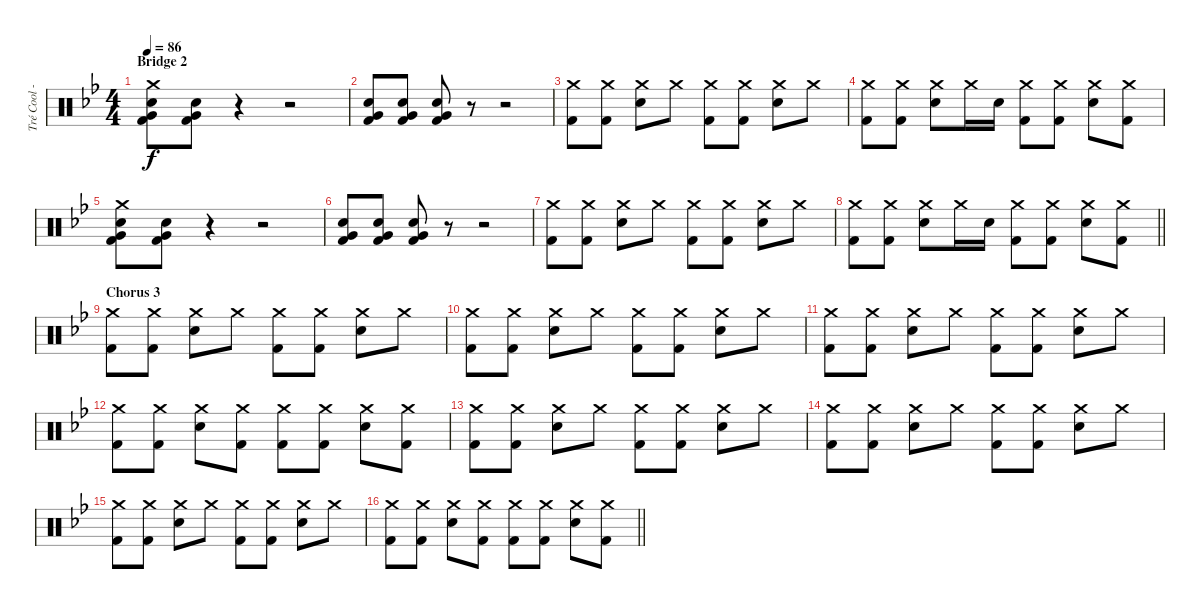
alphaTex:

\track ("Tré Cool - Drums" "Tré Cool -") {instrument percussion}
\staff {score}
\articulation defaults
\ts (4 4)
\section ("" "Bridge 2")
\tempo 86
\clef neutral
\ks gminor
("Crash medium (hit)" "Very Low Tom (hit)" "Electric Snare (hit)" "Kick (hit) 2").8{dy f} ("Very Low Tom (hit)" "Electric Snare (hit)" "Kick (hit) 2").8 r.4 r.2 |
("Very Low Tom (hit)" "Electric Snare (hit)" "Kick (hit) 2").8 ("Very Low Tom (hit)" "Electric Snare (hit)" "Kick (hit) 2").8 ("Very Low Tom (hit)" "Electric Snare (hit)" "Kick (hit) 2").8 r.8 r.2 |
("Crash medium (hit)" "Kick (hit) 2").8 ("Crash medium (hit)" "Kick (hit) 2").8 ("Crash medium (hit)" "Electric Snare (hit)").8 "Crash medium (hit)".8 ("Crash medium (hit)" "Kick (hit) 2").8 ("Crash medium (hit)" "Kick (hit) 2").8 ("Crash medium (hit)" "Electric Snare (hit)").8 "Crash medium (hit)".8 |
("Crash medium (hit)" "Kick (hit) 2").8 ("Crash medium (hit)" "Kick (hit) 2").8 ("Crash medium (hit)" "Electric Snare (hit)").8 "Crash medium (hit)".16 "Electric Snare (hit)".16 ("Crash medium (hit)" "Kick (hit) 2").8 ("Crash medium (hit)" "Kick (hit) 2").8 ("Crash medium (hit)" "Electric Snare (hit)").8 ("Crash medium (hit)" "Kick (hit) 2").8 |
("Crash medium (hit)" "Very Low Tom (hit)" "Electric Snare (hit)" "Kick (hit) 2").8 ("Very Low Tom (hit)" "Electric Snare (hit)" "Kick (hit) 2").8 r.4 r.2 |
("Very Low Tom (hit)" "Electric Snare (hit)" "Kick (hit) 2").8 ("Very Low Tom (hit)" "Electric Snare (hit)" "Kick (hit) 2").8 ("Very Low Tom (hit)" "Electric Snare (hit)" "Kick (hit) 2").8 r.8 r.2 |
("Crash medium (hit)" "Kick (hit) 2").8 ("Crash medium (hit)" "Kick (hit) 2").8 ("Crash medium (hit)" "Electric Snare (hit)").8 "Crash medium (hit)".8 ("Crash medium (hit)" "Kick (hit) 2").8 ("Crash medium (hit)" "Kick (hit) 2").8 ("Crash medium (hit)" "Electric Snare (hit)").8 "Crash medium (hit)".8 |
\barLineRight lightlight
("Crash medium (hit)" "Kick (hit) 2").8 ("Crash medium (hit)" "Kick (hit) 2").8 ("Crash medium (hit)" "Electric Snare (hit)").8 "Crash medium (hit)".16 "Electric Snare (hit)".16 ("Crash medium (hit)" "Kick (hit) 2").8 ("Crash medium (hit)" "Kick (hit) 2").8 ("Crash medium (hit)" "Electric Snare (hit)").8 ("Crash medium (hit)" "Kick (hit) 2").8 |
\section ("" "Chorus 3")
("Crash medium (hit)" "Kick (hit) 2").8 ("Crash medium (hit)" "Kick (hit) 2").8 ("Crash medium (hit)" "Electric Snare (hit)").8 "Crash medium (hit)".8 ("Crash medium (hit)" "Kick (hit) 2").8 ("Crash medium (hit)" "Kick (hit) 2").8 ("Crash medium (hit)" "Electric Snare (hit)").8 "Crash medium (hit)".8 |
("Crash medium (hit)" "Kick (hit) 2").8 ("Crash medium (hit)" "Kick (hit) 2").8 ("Crash medium (hit)" "Electric Snare (hit)").8 "Crash medium (hit)".8 ("Crash medium (hit)" "Kick (hit) 2").8 ("Crash medium (hit)" "Kick (hit) 2").8 ("Crash medium (hit)" "Electric Snare (hit)").8 "Crash medium (hit)".8 |
("Crash medium (hit)" "Kick (hit) 2").8 ("Crash medium (hit)" "Kick (hit) 2").8 ("Crash medium (hit)" "Electric Snare (hit)").8 "Crash medium (hit)".8 ("Crash medium (hit)" "Kick (hit) 2").8 ("Crash medium (hit)" "Kick (hit) 2").8 ("Crash medium (hit)" "Electric Snare (hit)").8 "Crash medium (hit)".8 |
("Crash medium (hit)" "Kick (hit) 2").8 ("Crash medium (hit)" "Kick (hit) 2").8 ("Crash medium (hit)" "Electric Snare (hit)").8 ("Crash medium (hit)" "Kick (hit) 2").8 ("Crash medium (hit)" "Kick (hit) 2").8 ("Crash medium (hit)" "Kick (hit) 2").8 ("Crash medium (hit)" "Electric Snare (hit)").8 ("Crash medium (hit)" "Kick (hit) 2").8 |
("Crash medium (hit)" "Kick (hit) 2").8 ("Crash medium (hit)" "Kick (hit) 2").8 ("Crash medium (hit)" "Electric Snare (hit)").8 "Crash medium (hit)".8 ("Crash medium (hit)" "Kick (hit) 2").8 ("Crash medium (hit)" "Kick (hit) 2").8 ("Crash medium (hit)" "Electric Snare (hit)").8 "Crash medium (hit)".8 |
("Crash medium (hit)" "Kick (hit) 2").8 ("Crash medium (hit)" "Kick (hit) 2").8 ("Crash medium (hit)" "Electric Snare (hit)").8 "Crash medium (hit)".8 ("Crash medium (hit)" "Kick (hit) 2").8 ("Crash medium (hit)" "Kick (hit) 2").8 ("Crash medium (hit)" "Electric Snare (hit)").8 "Crash medium (hit)".8 |
("Crash medium (hit)" "Kick (hit) 2").8 ("Crash medium (hit)" "Kick (hit) 2").8 ("Crash medium (hit)" "Electric Snare (hit)").8 "Crash medium (hit)".8 ("Crash medium (hit)" "Kick (hit) 2").8 ("Crash medium (hit)" "Kick (hit) 2").8 ("Crash medium (hit)" "Electric Snare (hit)").8 "Crash medium (hit)".8 |
\barLineRight lightlight
("Crash medium (hit)" "Kick (hit) 2").8 ("Crash medium (hit)" "Kick (hit) 2").8 ("Crash medium (hit)" "Electric Snare (hit)").8 ("Crash medium (hit)" "Kick (hit) 2").8 ("Crash medium (hit)" "Kick (hit) 2").8 ("Crash medium (hit)" "Kick (hit) 2").8 ("Crash medium (hit)" "Electric Snare (hit)").8 ("Crash medium (hit)" "Kick (hit) 2").8
